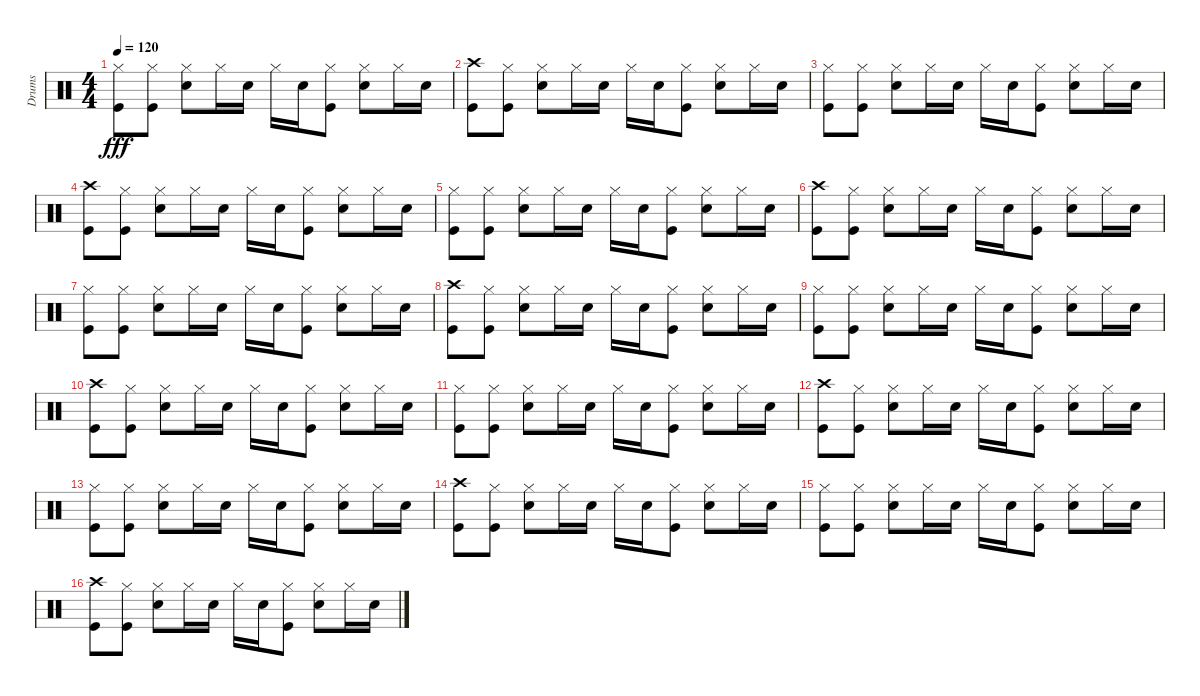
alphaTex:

\track ("Drums" "Drums") {instrument percussion}
\staff {score}
\articulation defaults
\ts (4 4)
\tempo 120
\clef neutral
\ks c
("Hi-Hat (closed)" "Kick (hit)").8{dy fff} ("Hi-Hat (closed)" "Kick (hit)").8 ("Hi-Hat (closed)" "Snare (hit) 2").8 "Hi-Hat (closed)".16 "Snare (hit) 2".16 "Hi-Hat (closed)".16 "Snare (hit) 2".16 ("Hi-Hat (closed)" "Kick (hit)").8 ("Hi-Hat (closed)" "Snare (hit) 2").8 "Hi-Hat (closed)".16 "Snare (hit) 2".16 |
("Crash high (hit)" "Kick (hit)").8 ("Hi-Hat (closed)" "Kick (hit)").8 ("Hi-Hat (closed)" "Snare (hit) 2").8 "Hi-Hat (closed)".16 "Snare (hit) 2".16 "Hi-Hat (closed)".16 "Snare (hit) 2".16 ("Hi-Hat (closed)" "Kick (hit)").8 ("Hi-Hat (closed)" "Snare (hit) 2").8 "Hi-Hat (closed)".16 "Snare (hit) 2".16 |
("Hi-Hat (closed)" "Kick (hit)").8 ("Hi-Hat (closed)" "Kick (hit)").8 ("Hi-Hat (closed)" "Snare (hit) 2").8 "Hi-Hat (closed)".16 "Snare (hit) 2".16 "Hi-Hat (closed)".16 "Snare (hit) 2".16 ("Hi-Hat (closed)" "Kick (hit)").8 ("Hi-Hat (closed)" "Snare (hit) 2").8 "Hi-Hat (closed)".16 "Snare (hit) 2".16 |
("Crash high (hit)" "Kick (hit)").8 ("Hi-Hat (closed)" "Kick (hit)").8 ("Hi-Hat (closed)" "Snare (hit) 2").8 "Hi-Hat (closed)".16 "Snare (hit) 2".16 "Hi-Hat (closed)".16 "Snare (hit) 2".16 ("Hi-Hat (closed)" "Kick (hit)").8 ("Hi-Hat (closed)" "Snare (hit) 2").8 "Hi-Hat (closed)".16 "Snare (hit) 2".16 |
("Hi-Hat (closed)" "Kick (hit)").8 ("Hi-Hat (closed)" "Kick (hit)").8 ("Hi-Hat (closed)" "Snare (hit) 2").8 "Hi-Hat (closed)".16 "Snare (hit) 2".16 "Hi-Hat (closed)".16 "Snare (hit) 2".16 ("Hi-Hat (closed)" "Kick (hit)").8 ("Hi-Hat (closed)" "Snare (hit) 2").8 "Hi-Hat (closed)".16 "Snare (hit) 2".16 |
("Crash high (hit)" "Kick (hit)").8 ("Hi-Hat (closed)" "Kick (hit)").8 ("Hi-Hat (closed)" "Snare (hit) 2").8 "Hi-Hat (closed)".16 "Snare (hit) 2".16 "Hi-Hat (closed)".16 "Snare (hit) 2".16 ("Hi-Hat (closed)" "Kick (hit)").8 ("Hi-Hat (closed)" "Snare (hit) 2").8 "Hi-Hat (closed)".16 "Snare (hit) 2".16 |
("Hi-Hat (closed)" "Kick (hit)").8 ("Hi-Hat (closed)" "Kick (hit)").8 ("Hi-Hat (closed)" "Snare (hit) 2").8 "Hi-Hat (closed)".16 "Snare (hit) 2".16 "Hi-Hat (closed)".16 "Snare (hit) 2".16 ("Hi-Hat (closed)" "Kick (hit)").8 ("Hi-Hat (closed)" "Snare (hit) 2").8 "Hi-Hat (closed)".16 "Snare (hit) 2".16 |
("Crash high (hit)" "Kick (hit)").8 ("Hi-Hat (closed)" "Kick (hit)").8 ("Hi-Hat (closed)" "Snare (hit) 2").8 "Hi-Hat (closed)".16 "Snare (hit) 2".16 "Hi-Hat (closed)".16 "Snare (hit) 2".16 ("Hi-Hat (closed)" "Kick (hit)").8 ("Hi-Hat (closed)" "Snare (hit) 2").8 "Hi-Hat (closed)".16 "Snare (hit) 2".16 |
("Hi-Hat (closed)" "Kick (hit)").8 ("Hi-Hat (closed)" "Kick (hit)").8 ("Hi-Hat (closed)" "Snare (hit) 2").8 "Hi-Hat (closed)".16 "Snare (hit) 2".16 "Hi-Hat (closed)".16 "Snare (hit) 2".16 ("Hi-Hat (closed)" "Kick (hit)").8 ("Hi-Hat (closed)" "Snare (hit) 2").8 "Hi-Hat (closed)".16 "Snare (hit) 2".16 |
("Crash high (hit)" "Kick (hit)").8 ("Hi-Hat (closed)" "Kick (hit)").8 ("Hi-Hat (closed)" "Snare (hit) 2").8 "Hi-Hat (closed)".16 "Snare (hit) 2".16 "Hi-Hat (closed)".16 "Snare (hit) 2".16 ("Hi-Hat (closed)" "Kick (hit)").8 ("Hi-Hat (closed)" "Snare (hit) 2").8 "Hi-Hat (closed)".16 "Snare (hit) 2".16 |
("Hi-Hat (closed)" "Kick (hit)").8 ("Hi-Hat (closed)" "Kick (hit)").8 ("Hi-Hat (closed)" "Snare (hit) 2").8 "Hi-Hat (closed)".16 "Snare (hit) 2".16 "Hi-Hat (closed)".16 "Snare (hit) 2".16 ("Hi-Hat (closed)" "Kick (hit)").8 ("Hi-Hat (closed)" "Snare (hit) 2").8 "Hi-Hat (closed)".16 "Snare (hit) 2".16 |
("Crash high (hit)" "Kick (hit)").8 ("Hi-Hat (closed)" "Kick (hit)").8 ("Hi-Hat (closed)" "Snare (hit) 2").8 "Hi-Hat (closed)".16 "Snare (hit) 2".16 "Hi-Hat (closed)".16 "Snare (hit) 2".16 ("Hi-Hat (closed)" "Kick (hit)").8 ("Hi-Hat (closed)" "Snare (hit) 2").8 "Hi-Hat (closed)".16 "Snare (hit) 2".16 |
("Hi-Hat (closed)" "Kick (hit)").8 ("Hi-Hat (closed)" "Kick (hit)").8 ("Hi-Hat (closed)" "Snare (hit) 2").8 "Hi-Hat (closed)".16 "Snare (hit) 2".16 "Hi-Hat (closed)".16 "Snare (hit) 2".16 ("Hi-Hat (closed)" "Kick (hit)").8 ("Hi-Hat (closed)" "Snare (hit) 2").8 "Hi-Hat (closed)".16 "Snare (hit) 2".16 |
("Crash high (hit)" "Kick (hit)").8 ("Hi-Hat (closed)" "Kick (hit)").8 ("Hi-Hat (closed)" "Snare (hit) 2").8 "Hi-Hat (closed)".16 "Snare (hit) 2".16 "Hi-Hat (closed)".16 "Snare (hit) 2".16 ("Hi-Hat (closed)" "Kick (hit)").8 ("Hi-Hat (closed)" "Snare (hit) 2").8 "Hi-Hat (closed)".16 "Snare (hit) 2".16 |
("Hi-Hat (closed)" "Kick (hit)").8 ("Hi-Hat (closed)" "Kick (hit)").8 ("Hi-Hat (closed)" "Snare (hit) 2").8 "Hi-Hat (closed)".16 "Snare (hit) 2".16 "Hi-Hat (closed)".16 "Snare (hit) 2".16 ("Hi-Hat (closed)" "Kick (hit)").8 ("Hi-Hat (closed)" "Snare (hit) 2").8 "Hi-Hat (closed)".16 "Snare (hit) 2".16 |
("Crash high (hit)" "Kick (hit)").8 ("Hi-Hat (closed)" "Kick (hit)").8 ("Hi-Hat (closed)" "Snare (hit) 2").8 "Hi-Hat (closed)".16 "Snare (hit) 2".16 "Hi-Hat (closed)".16 "Snare (hit) 2".16 ("Hi-Hat (closed)" "Kick (hit)").8 ("Hi-Hat (closed)" "Snare (hit) 2").8 "Hi-Hat (closed)".16 "Snare (hit) 2".16
